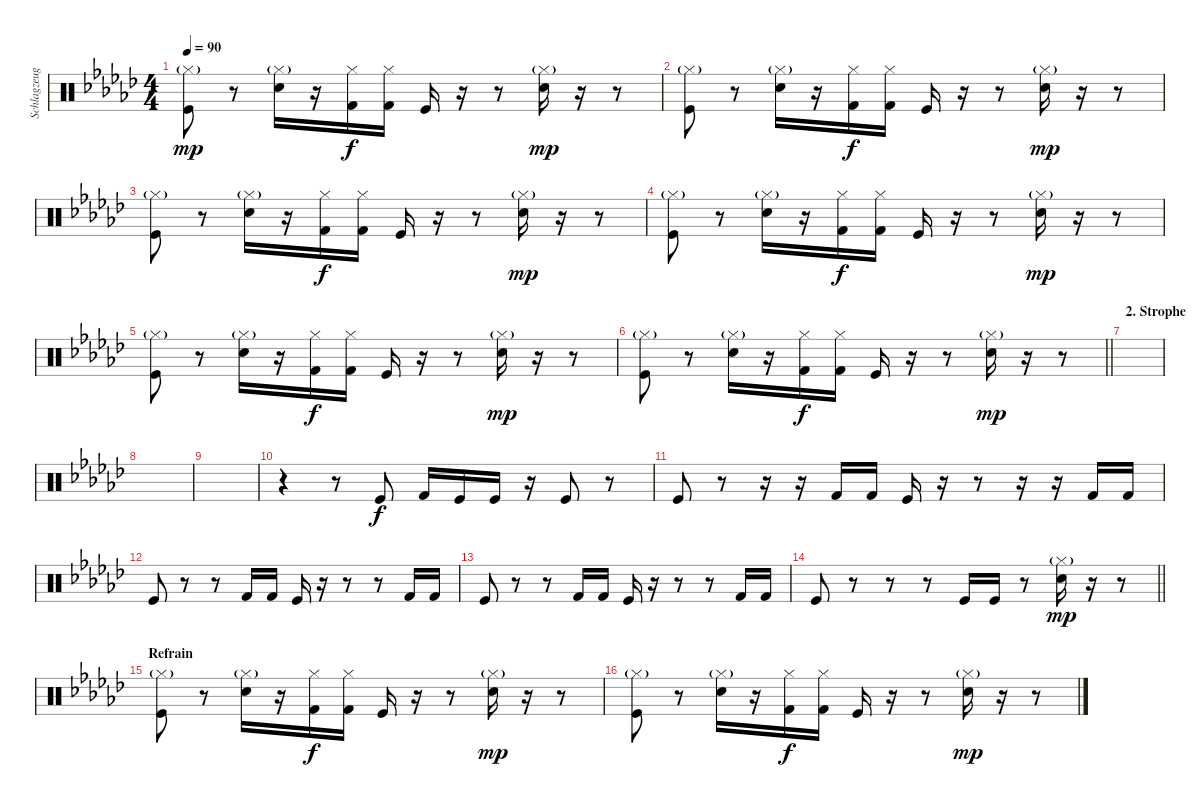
\track ("Schlagzeug" "Schlagzeug") {instrument percussion}
\staff {score}
\articulation defaults
\ts (4 4)
\tempo 90
\clef neutral
\ks ebminor
("Hi-Hat (closed)"{g} "Kick (hit)").8{dy mp} r.8 ("Hi-Hat (closed)"{g} "Electric Snare (hit)").16 r.16 ("Hi-Hat (closed)" "Kick (hit) 2").16{dy f} ("Hi-Hat (closed)" "Kick (hit) 2").16 "Kick (hit)".16 r.16 r.8 ("Hi-Hat (closed)"{g} "Electric Snare (hit)").16{dy mp} r.16 r.8 |
("Hi-Hat (closed)"{g} "Kick (hit)").8 r.8 ("Hi-Hat (closed)"{g} "Electric Snare (hit)").16 r.16 ("Hi-Hat (closed)" "Kick (hit) 2").16{dy f} ("Hi-Hat (closed)" "Kick (hit) 2").16 "Kick (hit)".16 r.16 r.8 ("Hi-Hat (closed)"{g} "Electric Snare (hit)").16{dy mp} r.16 r.8 |
("Hi-Hat (closed)"{g} "Kick (hit)").8 r.8 ("Hi-Hat (closed)"{g} "Electric Snare (hit)").16 r.16 ("Hi-Hat (closed)" "Kick (hit) 2").16{dy f} ("Hi-Hat (closed)" "Kick (hit) 2").16 "Kick (hit)".16 r.16 r.8 ("Hi-Hat (closed)"{g} "Electric Snare (hit)").16{dy mp} r.16 r.8 |
("Hi-Hat (closed)"{g} "Kick (hit)").8 r.8 ("Hi-Hat (closed)"{g} "Electric Snare (hit)").16 r.16 ("Hi-Hat (closed)" "Kick (hit) 2").16{dy f} ("Hi-Hat (closed)" "Kick (hit) 2").16 "Kick (hit)".16 r.16 r.8 ("Hi-Hat (closed)"{g} "Electric Snare (hit)").16{dy mp} r.16 r.8 |
("Hi-Hat (closed)"{g} "Kick (hit)").8 r.8 ("Hi-Hat (closed)"{g} "Electric Snare (hit)").16 r.16 ("Hi-Hat (closed)" "Kick (hit) 2").16{dy f} ("Hi-Hat (closed)" "Kick (hit) 2").16 "Kick (hit)".16 r.16 r.8 ("Hi-Hat (closed)"{g} "Electric Snare (hit)").16{dy mp} r.16 r.8 |
\barLineRight lightlight
("Hi-Hat (closed)"{g} "Kick (hit)").8 r.8 ("Hi-Hat (closed)"{g} "Electric Snare (hit)").16 r.16 ("Hi-Hat (closed)" "Kick (hit) 2").16{dy f} ("Hi-Hat (closed)" "Kick (hit) 2").16 "Kick (hit)".16 r.16 r.8 ("Hi-Hat (closed)"{g} "Electric Snare (hit)").16{dy mp} r.16 r.8 |
\section ("" "2. Strophe")
|
|
|
r.4 r.8 "Kick (hit)".8{dy f} "Kick (hit) 2".16 "Kick (hit)".16 "Kick (hit)".16 r.16 "Kick (hit)".8 r.8 |
"Kick (hit)".8 r.8 r.16 r.16 "Kick (hit) 2".16 "Kick (hit) 2".16 "Kick (hit)".16 r.16 r.8 r.16 r.16 "Kick (hit) 2".16 "Kick (hit) 2".16 |
"Kick (hit)".8 r.8 r.8 "Kick (hit) 2".16 "Kick (hit) 2".16 "Kick (hit)".16 r.16 r.8 r.8 "Kick (hit) 2".16 "Kick (hit) 2".16 |
"Kick (hit)".8 r.8 r.8 "Kick (hit) 2".16 "Kick (hit) 2".16 "Kick (hit)".16 r.16 r.8 r.8 "Kick (hit) 2".16 "Kick (hit) 2".16 |
\barLineRight lightlight "Kick (hit)".8
r.8 r.8 r.8 "Kick (hit)".16 "Kick (hit)".16 r.8 ("Hi-Hat (closed)"{g} "Electric Snare (hit)").16{dy mp} r.16 r.8 |
\section ("" "Refrain")
("Hi-Hat (closed)"{g} "Kick (hit)").8 r.8 ("Hi-Hat (closed)"{g} "Electric Snare (hit)").16 r.16 ("Hi-Hat (closed)" "Kick (hit) 2").16{dy f} ("Hi-Hat (closed)" "Kick (hit) 2").16 "Kick (hit)".16 r.16 r.8 ("Hi-Hat (closed)"{g} "Electric Snare (hit)").16{dy mp} r.16 r.8 |
("Hi-Hat (closed)"{g} "Kick (hit)").8 r.8 ("Hi-Hat (closed)"{g} "Electric Snare (hit)").16 r.16 ("Hi-Hat (closed)" "Kick (hit) 2").16{dy f} ("Hi-Hat (closed)" "Kick (hit) 2").16 "Kick (hit)".16 r.16 r.8 ("Hi-Hat (closed)"{g} "Electric Snare (hit)").16{dy mp} r.16 r.8
